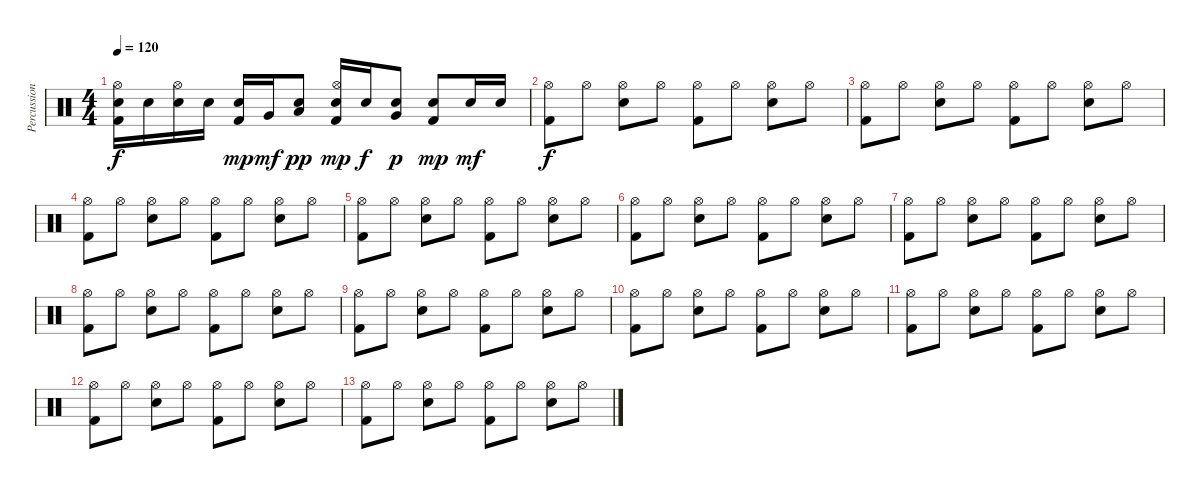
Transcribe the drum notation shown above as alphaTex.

\track ("Percussion" "Percussion") {instrument percussion}
\staff {score}
\articulation defaults
\ts (4 4)
\tempo 120
\clef neutral
\ks c
("Electric Snare (hit)" "Hi-Hat (open)" "Kick (hit) 2").16{dy f} "Electric Snare (hit)".16 ("Electric Snare (hit)" "Hi-Hat (open)").16 "Electric Snare (hit)".16 ("Electric Snare (hit)" "Kick (hit) 2").16{dy mp} "Very Low Tom (hit)".16{dy mf} ("Low Tom (hit)" "Electric Snare (hit)").8{dy pp} ("Electric Snare (hit)" "Hi-Hat (open)" "Kick (hit) 2").16{dy mp} "Electric Snare (hit)".16{dy f} ("Very Low Tom (hit)" "Electric Snare (hit)").8{dy p} ("Electric Snare (hit)" "Kick (hit) 2").8{dy mp} "Electric Snare (hit)".16{dy mf} "Electric Snare (hit)".16 |
("Hi-Hat (open)" "Kick (hit) 2").8{dy f} "Hi-Hat (open)".8 ("Hi-Hat (open)" "Electric Snare (hit)").8 "Hi-Hat (open)".8 ("Hi-Hat (open)" "Kick (hit) 2").8 "Hi-Hat (open)".8 ("Hi-Hat (open)" "Electric Snare (hit)").8 "Hi-Hat (open)".8 |
("Hi-Hat (open)" "Kick (hit) 2").8 "Hi-Hat (open)".8 ("Hi-Hat (open)" "Electric Snare (hit)").8 "Hi-Hat (open)".8 ("Hi-Hat (open)" "Kick (hit) 2").8 "Hi-Hat (open)".8 ("Hi-Hat (open)" "Electric Snare (hit)").8 "Hi-Hat (open)".8 |
("Hi-Hat (open)" "Kick (hit) 2").8 "Hi-Hat (open)".8 ("Hi-Hat (open)" "Electric Snare (hit)").8 "Hi-Hat (open)".8 ("Hi-Hat (open)" "Kick (hit) 2").8 "Hi-Hat (open)".8 ("Hi-Hat (open)" "Electric Snare (hit)").8 "Hi-Hat (open)".8 |
("Hi-Hat (open)" "Kick (hit) 2").8 "Hi-Hat (open)".8 ("Hi-Hat (open)" "Electric Snare (hit)").8 "Hi-Hat (open)".8 ("Hi-Hat (open)" "Kick (hit) 2").8 "Hi-Hat (open)".8 ("Hi-Hat (open)" "Electric Snare (hit)").8 "Hi-Hat (open)".8 |
("Hi-Hat (open)" "Kick (hit) 2").8 "Hi-Hat (open)".8 ("Hi-Hat (open)" "Electric Snare (hit)").8 "Hi-Hat (open)".8 ("Hi-Hat (open)" "Kick (hit) 2").8 "Hi-Hat (open)".8 ("Hi-Hat (open)" "Electric Snare (hit)").8 "Hi-Hat (open)".8 |
("Hi-Hat (open)" "Kick (hit) 2").8 "Hi-Hat (open)".8 ("Hi-Hat (open)" "Electric Snare (hit)").8 "Hi-Hat (open)".8 ("Hi-Hat (open)" "Kick (hit) 2").8 "Hi-Hat (open)".8 ("Hi-Hat (open)" "Electric Snare (hit)").8 "Hi-Hat (open)".8 |
("Hi-Hat (open)" "Kick (hit) 2").8 "Hi-Hat (open)".8 ("Hi-Hat (open)" "Electric Snare (hit)").8 "Hi-Hat (open)".8 ("Hi-Hat (open)" "Kick (hit) 2").8 "Hi-Hat (open)".8 ("Hi-Hat (open)" "Electric Snare (hit)").8 "Hi-Hat (open)".8 |
("Hi-Hat (open)" "Kick (hit) 2").8 "Hi-Hat (open)".8 ("Hi-Hat (open)" "Electric Snare (hit)").8 "Hi-Hat (open)".8 ("Hi-Hat (open)" "Kick (hit) 2").8 "Hi-Hat (open)".8 ("Hi-Hat (open)" "Electric Snare (hit)").8 "Hi-Hat (open)".8 |
("Hi-Hat (open)" "Kick (hit) 2").8 "Hi-Hat (open)".8 ("Hi-Hat (open)" "Electric Snare (hit)").8 "Hi-Hat (open)".8 ("Hi-Hat (open)" "Kick (hit) 2").8 "Hi-Hat (open)".8 ("Hi-Hat (open)" "Electric Snare (hit)").8 "Hi-Hat (open)".8 |
("Hi-Hat (open)" "Kick (hit) 2").8 "Hi-Hat (open)".8 ("Hi-Hat (open)" "Electric Snare (hit)").8 "Hi-Hat (open)".8 ("Hi-Hat (open)" "Kick (hit) 2").8 "Hi-Hat (open)".8 ("Hi-Hat (open)" "Electric Snare (hit)").8 "Hi-Hat (open)".8 |
("Hi-Hat (open)" "Kick (hit) 2").8 "Hi-Hat (open)".8 ("Hi-Hat (open)" "Electric Snare (hit)").8 "Hi-Hat (open)".8 ("Hi-Hat (open)" "Kick (hit) 2").8 "Hi-Hat (open)".8 ("Hi-Hat (open)" "Electric Snare (hit)").8 "Hi-Hat (open)".8 |
("Hi-Hat (open)" "Kick (hit) 2").8 "Hi-Hat (open)".8 ("Hi-Hat (open)" "Electric Snare (hit)").8 "Hi-Hat (open)".8 ("Hi-Hat (open)" "Kick (hit) 2").8 "Hi-Hat (open)".8 ("Hi-Hat (open)" "Electric Snare (hit)").8 "Hi-Hat (open)".8
